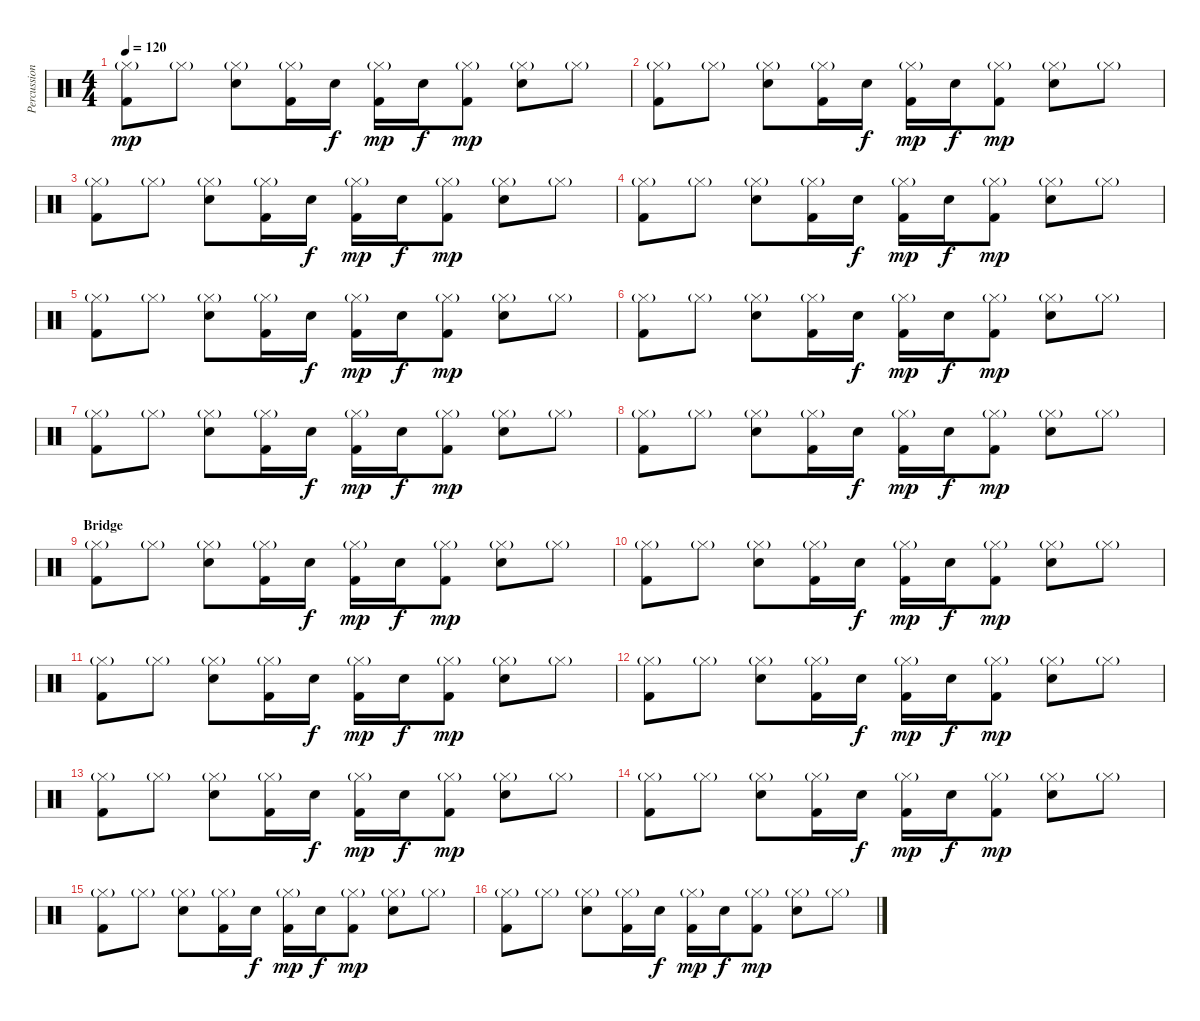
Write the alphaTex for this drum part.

\track ("Percussions" "Percussion") {instrument percussion}
\staff {score}
\articulation defaults
\ts (4 4)
\tempo 120
\clef neutral
\ks c
("Hi-Hat (closed)"{g} "Kick (hit) 2").8{dy mp} "Hi-Hat (closed)"{g}.8 ("Hi-Hat (closed)"{g} "Snare (hit) 2").8 ("Hi-Hat (closed)"{g} "Kick (hit) 2").16 "Snare (hit) 2".16{dy f} ("Hi-Hat (closed)"{g} "Kick (hit) 2").16{dy mp} "Snare (hit) 2".16{dy f} ("Hi-Hat (closed)"{g} "Kick (hit) 2").8{dy mp} ("Hi-Hat (closed)"{g} "Snare (hit) 2").8 "Hi-Hat (closed)"{g}.8 |
("Hi-Hat (closed)"{g} "Kick (hit) 2").8 "Hi-Hat (closed)"{g}.8 ("Hi-Hat (closed)"{g} "Snare (hit) 2").8 ("Hi-Hat (closed)"{g} "Kick (hit) 2").16 "Snare (hit) 2".16{dy f} ("Hi-Hat (closed)"{g} "Kick (hit) 2").16{dy mp} "Snare (hit) 2".16{dy f} ("Hi-Hat (closed)"{g} "Kick (hit) 2").8{dy mp} ("Hi-Hat (closed)"{g} "Snare (hit) 2").8 "Hi-Hat (closed)"{g}.8 |
("Hi-Hat (closed)"{g} "Kick (hit) 2").8 "Hi-Hat (closed)"{g}.8 ("Hi-Hat (closed)"{g} "Snare (hit) 2").8 ("Hi-Hat (closed)"{g} "Kick (hit) 2").16 "Snare (hit) 2".16{dy f} ("Hi-Hat (closed)"{g} "Kick (hit) 2").16{dy mp} "Snare (hit) 2".16{dy f} ("Hi-Hat (closed)"{g} "Kick (hit) 2").8{dy mp} ("Hi-Hat (closed)"{g} "Snare (hit) 2").8 "Hi-Hat (closed)"{g}.8 |
("Hi-Hat (closed)"{g} "Kick (hit) 2").8 "Hi-Hat (closed)"{g}.8 ("Hi-Hat (closed)"{g} "Snare (hit) 2").8 ("Hi-Hat (closed)"{g} "Kick (hit) 2").16 "Snare (hit) 2".16{dy f} ("Hi-Hat (closed)"{g} "Kick (hit) 2").16{dy mp} "Snare (hit) 2".16{dy f} ("Hi-Hat (closed)"{g} "Kick (hit) 2").8{dy mp} ("Hi-Hat (closed)"{g} "Snare (hit) 2").8 "Hi-Hat (closed)"{g}.8 |
("Hi-Hat (closed)"{g} "Kick (hit) 2").8 "Hi-Hat (closed)"{g}.8 ("Hi-Hat (closed)"{g} "Snare (hit) 2").8 ("Hi-Hat (closed)"{g} "Kick (hit) 2").16 "Snare (hit) 2".16{dy f} ("Hi-Hat (closed)"{g} "Kick (hit) 2").16{dy mp} "Snare (hit) 2".16{dy f} ("Hi-Hat (closed)"{g} "Kick (hit) 2").8{dy mp} ("Hi-Hat (closed)"{g} "Snare (hit) 2").8 "Hi-Hat (closed)"{g}.8 |
("Hi-Hat (closed)"{g} "Kick (hit) 2").8 "Hi-Hat (closed)"{g}.8 ("Hi-Hat (closed)"{g} "Snare (hit) 2").8 ("Hi-Hat (closed)"{g} "Kick (hit) 2").16 "Snare (hit) 2".16{dy f} ("Hi-Hat (closed)"{g} "Kick (hit) 2").16{dy mp} "Snare (hit) 2".16{dy f} ("Hi-Hat (closed)"{g} "Kick (hit) 2").8{dy mp} ("Hi-Hat (closed)"{g} "Snare (hit) 2").8 "Hi-Hat (closed)"{g}.8 |
("Hi-Hat (closed)"{g} "Kick (hit) 2").8 "Hi-Hat (closed)"{g}.8 ("Hi-Hat (closed)"{g} "Snare (hit) 2").8 ("Hi-Hat (closed)"{g} "Kick (hit) 2").16 "Snare (hit) 2".16{dy f} ("Hi-Hat (closed)"{g} "Kick (hit) 2").16{dy mp} "Snare (hit) 2".16{dy f} ("Hi-Hat (closed)"{g} "Kick (hit) 2").8{dy mp} ("Hi-Hat (closed)"{g} "Snare (hit) 2").8 "Hi-Hat (closed)"{g}.8 |
("Hi-Hat (closed)"{g} "Kick (hit) 2").8 "Hi-Hat (closed)"{g}.8 ("Hi-Hat (closed)"{g} "Snare (hit) 2").8 ("Hi-Hat (closed)"{g} "Kick (hit) 2").16 "Snare (hit) 2".16{dy f} ("Hi-Hat (closed)"{g} "Kick (hit) 2").16{dy mp} "Snare (hit) 2".16{dy f} ("Hi-Hat (closed)"{g} "Kick (hit) 2").8{dy mp} ("Hi-Hat (closed)"{g} "Snare (hit) 2").8 "Hi-Hat (closed)"{g}.8 |
\section ("" "Bridge")
("Hi-Hat (closed)"{g} "Kick (hit) 2").8 "Hi-Hat (closed)"{g}.8 ("Hi-Hat (closed)"{g} "Snare (hit) 2").8 ("Hi-Hat (closed)"{g} "Kick (hit) 2").16 "Snare (hit) 2".16{dy f} ("Hi-Hat (closed)"{g} "Kick (hit) 2").16{dy mp} "Snare (hit) 2".16{dy f} ("Hi-Hat (closed)"{g} "Kick (hit) 2").8{dy mp} ("Hi-Hat (closed)"{g} "Snare (hit) 2").8 "Hi-Hat (closed)"{g}.8 |
("Hi-Hat (closed)"{g} "Kick (hit) 2").8 "Hi-Hat (closed)"{g}.8 ("Hi-Hat (closed)"{g} "Snare (hit) 2").8 ("Hi-Hat (closed)"{g} "Kick (hit) 2").16 "Snare (hit) 2".16{dy f} ("Hi-Hat (closed)"{g} "Kick (hit) 2").16{dy mp} "Snare (hit) 2".16{dy f} ("Hi-Hat (closed)"{g} "Kick (hit) 2").8{dy mp} ("Hi-Hat (closed)"{g} "Snare (hit) 2").8 "Hi-Hat (closed)"{g}.8 |
("Hi-Hat (closed)"{g} "Kick (hit) 2").8 "Hi-Hat (closed)"{g}.8 ("Hi-Hat (closed)"{g} "Snare (hit) 2").8 ("Hi-Hat (closed)"{g} "Kick (hit) 2").16 "Snare (hit) 2".16{dy f} ("Hi-Hat (closed)"{g} "Kick (hit) 2").16{dy mp} "Snare (hit) 2".16{dy f} ("Hi-Hat (closed)"{g} "Kick (hit) 2").8{dy mp} ("Hi-Hat (closed)"{g} "Snare (hit) 2").8 "Hi-Hat (closed)"{g}.8 |
("Hi-Hat (closed)"{g} "Kick (hit) 2").8 "Hi-Hat (closed)"{g}.8 ("Hi-Hat (closed)"{g} "Snare (hit) 2").8 ("Hi-Hat (closed)"{g} "Kick (hit) 2").16 "Snare (hit) 2".16{dy f} ("Hi-Hat (closed)"{g} "Kick (hit) 2").16{dy mp} "Snare (hit) 2".16{dy f} ("Hi-Hat (closed)"{g} "Kick (hit) 2").8{dy mp} ("Hi-Hat (closed)"{g} "Snare (hit) 2").8 "Hi-Hat (closed)"{g}.8 |
("Hi-Hat (closed)"{g} "Kick (hit) 2").8 "Hi-Hat (closed)"{g}.8 ("Hi-Hat (closed)"{g} "Snare (hit) 2").8 ("Hi-Hat (closed)"{g} "Kick (hit) 2").16 "Snare (hit) 2".16{dy f} ("Hi-Hat (closed)"{g} "Kick (hit) 2").16{dy mp} "Snare (hit) 2".16{dy f} ("Hi-Hat (closed)"{g} "Kick (hit) 2").8{dy mp} ("Hi-Hat (closed)"{g} "Snare (hit) 2").8 "Hi-Hat (closed)"{g}.8 |
("Hi-Hat (closed)"{g} "Kick (hit) 2").8 "Hi-Hat (closed)"{g}.8 ("Hi-Hat (closed)"{g} "Snare (hit) 2").8 ("Hi-Hat (closed)"{g} "Kick (hit) 2").16 "Snare (hit) 2".16{dy f} ("Hi-Hat (closed)"{g} "Kick (hit) 2").16{dy mp} "Snare (hit) 2".16{dy f} ("Hi-Hat (closed)"{g} "Kick (hit) 2").8{dy mp} ("Hi-Hat (closed)"{g} "Snare (hit) 2").8 "Hi-Hat (closed)"{g}.8 |
("Hi-Hat (closed)"{g} "Kick (hit) 2").8 "Hi-Hat (closed)"{g}.8 ("Hi-Hat (closed)"{g} "Snare (hit) 2").8 ("Hi-Hat (closed)"{g} "Kick (hit) 2").16 "Snare (hit) 2".16{dy f} ("Hi-Hat (closed)"{g} "Kick (hit) 2").16{dy mp} "Snare (hit) 2".16{dy f} ("Hi-Hat (closed)"{g} "Kick (hit) 2").8{dy mp} ("Hi-Hat (closed)"{g} "Snare (hit) 2").8 "Hi-Hat (closed)"{g}.8 |
("Hi-Hat (closed)"{g} "Kick (hit) 2").8 "Hi-Hat (closed)"{g}.8 ("Hi-Hat (closed)"{g} "Snare (hit) 2").8 ("Hi-Hat (closed)"{g} "Kick (hit) 2").16 "Snare (hit) 2".16{dy f} ("Hi-Hat (closed)"{g} "Kick (hit) 2").16{dy mp} "Snare (hit) 2".16{dy f} ("Hi-Hat (closed)"{g} "Kick (hit) 2").8{dy mp} ("Hi-Hat (closed)"{g} "Snare (hit) 2").8 "Hi-Hat (closed)"{g}.8
